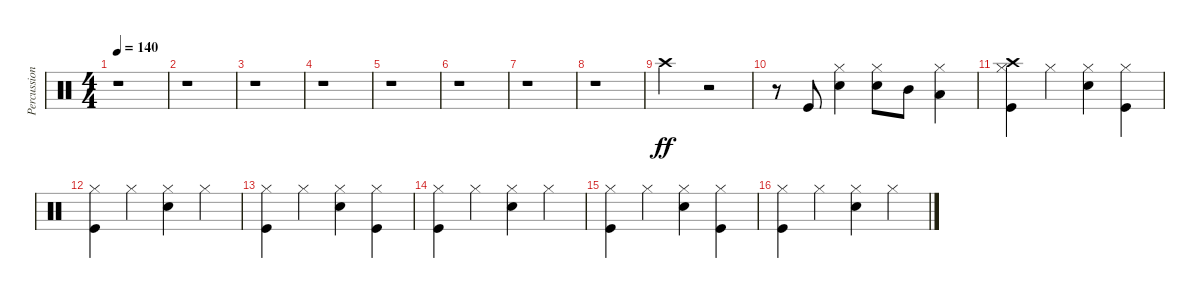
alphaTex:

\track ("Percussions" "Percussion") {instrument percussion}
\staff {score}
\articulation defaults
\ts (4 4)
\tempo 140
\clef neutral
\ks c
r.1{dy ff} |
r.1 |
r.1 |
r.1 |
r.1 |
r.1 |
r.1 |
r.1 |
"Crash high (hit)".2{volume 8} r.2 |
r.8 "Kick (hit)".8{volume 16} ("Snare (hit) 2" "Hi-Hat (closed)").4 ("Snare (hit) 2" "Hi-Hat (closed)").8 "Mid Tom (hit)".8 ("Hi-Hat (closed)" "Low Tom (hit)").4 |
("Kick (hit)" "Hi-Hat (closed)" "Crash high (hit)").4 "Hi-Hat (closed)".4 ("Snare (hit) 2" "Hi-Hat (closed)").4 ("Kick (hit)" "Hi-Hat (closed)").4 |
("Kick (hit)" "Hi-Hat (closed)").4 "Hi-Hat (closed)".4 ("Snare (hit) 2" "Hi-Hat (closed)").4 "Hi-Hat (closed)".4 |
("Kick (hit)" "Hi-Hat (closed)").4 "Hi-Hat (closed)".4 ("Snare (hit) 2" "Hi-Hat (closed)").4 ("Kick (hit)" "Hi-Hat (closed)").4 |
("Kick (hit)" "Hi-Hat (closed)").4 "Hi-Hat (closed)".4 ("Snare (hit) 2" "Hi-Hat (closed)").4 "Hi-Hat (closed)".4 |
("Kick (hit)" "Hi-Hat (closed)").4 "Hi-Hat (closed)".4 ("Snare (hit) 2" "Hi-Hat (closed)").4 ("Kick (hit)" "Hi-Hat (closed)").4 |
("Kick (hit)" "Hi-Hat (closed)").4 "Hi-Hat (closed)".4 ("Snare (hit) 2" "Hi-Hat (closed)").4 "Hi-Hat (closed)".4
